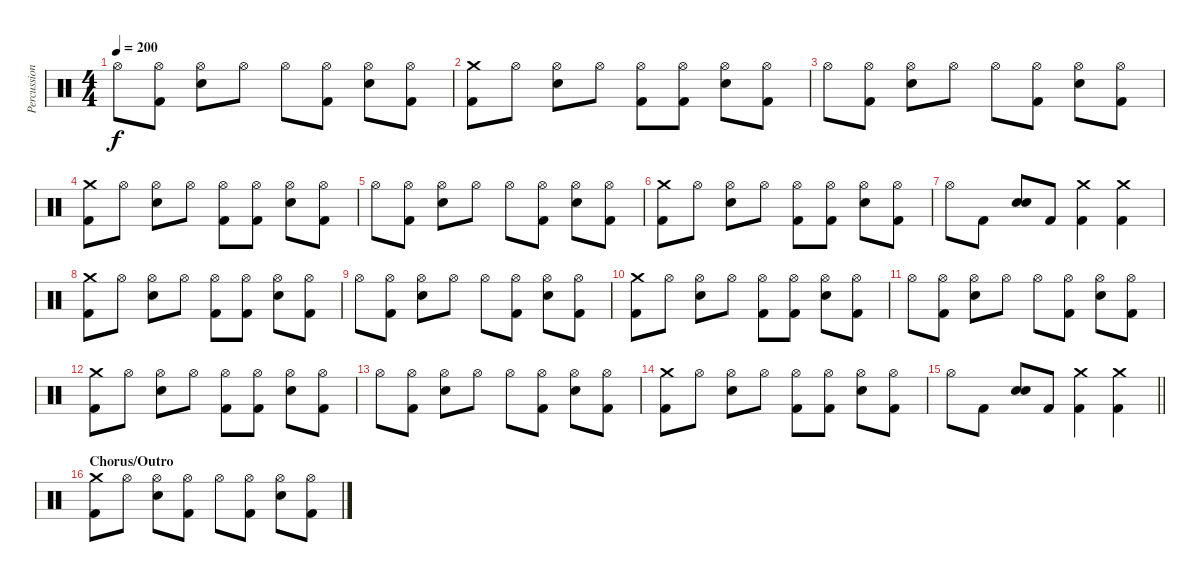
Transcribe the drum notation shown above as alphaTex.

\track ("Percussion" "Percussion") {instrument percussion}
\staff {score}
\articulation defaults
\ts (4 4)
\tempo 200
\clef neutral
\ks c "Hi-Hat (open)".8{dy f}
("Hi-Hat (open)" "Kick (hit) 2").8 ("Hi-Hat (open)" "Electric Snare (hit)").8 "Hi-Hat (open)".8 "Hi-Hat (open)".8 ("Hi-Hat (open)" "Kick (hit) 2").8 ("Hi-Hat (open)" "Electric Snare (hit)").8 ("Hi-Hat (open)" "Kick (hit) 2").8 |
("Crash medium (hit)" "Kick (hit) 2").8 "Hi-Hat (open)".8 ("Hi-Hat (open)" "Electric Snare (hit)").8 "Hi-Hat (open)".8 ("Hi-Hat (open)" "Kick (hit) 2").8 ("Hi-Hat (open)" "Kick (hit) 2").8 ("Hi-Hat (open)" "Electric Snare (hit)").8 ("Hi-Hat (open)" "Kick (hit) 2").8 |
"Hi-Hat (open)".8 ("Hi-Hat (open)" "Kick (hit) 2").8 ("Hi-Hat (open)" "Electric Snare (hit)").8 "Hi-Hat (open)".8 "Hi-Hat (open)".8 ("Hi-Hat (open)" "Kick (hit) 2").8 ("Hi-Hat (open)" "Electric Snare (hit)").8 ("Hi-Hat (open)" "Kick (hit) 2").8 |
("Crash medium (hit)" "Kick (hit) 2").8 "Hi-Hat (open)".8 ("Hi-Hat (open)" "Electric Snare (hit)").8 "Hi-Hat (open)".8 ("Hi-Hat (open)" "Kick (hit) 2").8 ("Hi-Hat (open)" "Kick (hit) 2").8 ("Hi-Hat (open)" "Electric Snare (hit)").8 ("Hi-Hat (open)" "Kick (hit) 2").8 |
"Hi-Hat (open)".8 ("Hi-Hat (open)" "Kick (hit) 2").8 ("Hi-Hat (open)" "Electric Snare (hit)").8 "Hi-Hat (open)".8 "Hi-Hat (open)".8 ("Hi-Hat (open)" "Kick (hit) 2").8 ("Hi-Hat (open)" "Electric Snare (hit)").8 ("Hi-Hat (open)" "Kick (hit) 2").8 |
("Crash medium (hit)" "Kick (hit) 2").8 "Hi-Hat (open)".8 ("Hi-Hat (open)" "Electric Snare (hit)").8 "Hi-Hat (open)".8 ("Hi-Hat (open)" "Kick (hit) 2").8 ("Hi-Hat (open)" "Kick (hit) 2").8 ("Hi-Hat (open)" "Electric Snare (hit)").8 ("Hi-Hat (open)" "Kick (hit) 2").8 |
"Hi-Hat (open)".8 "Kick (hit) 2".8 ("Electric Snare (hit)" "Electric Snare (hit)").8 "Kick (hit) 2".8 ("Crash medium (hit)" "Kick (hit) 2").4 ("Crash medium (hit)" "Kick (hit) 2").4 |
("Crash medium (hit)" "Kick (hit) 2").8 "Hi-Hat (open)".8 ("Hi-Hat (open)" "Electric Snare (hit)").8 "Hi-Hat (open)".8 ("Hi-Hat (open)" "Kick (hit) 2").8 ("Hi-Hat (open)" "Kick (hit) 2").8 ("Hi-Hat (open)" "Electric Snare (hit)").8 ("Hi-Hat (open)" "Kick (hit) 2").8 |
"Hi-Hat (open)".8 ("Hi-Hat (open)" "Kick (hit) 2").8 ("Hi-Hat (open)" "Electric Snare (hit)").8 "Hi-Hat (open)".8 "Hi-Hat (open)".8 ("Hi-Hat (open)" "Kick (hit) 2").8 ("Hi-Hat (open)" "Electric Snare (hit)").8 ("Hi-Hat (open)" "Kick (hit) 2").8 |
("Crash medium (hit)" "Kick (hit) 2").8 "Hi-Hat (open)".8 ("Hi-Hat (open)" "Electric Snare (hit)").8 "Hi-Hat (open)".8 ("Hi-Hat (open)" "Kick (hit) 2").8 ("Hi-Hat (open)" "Kick (hit) 2").8 ("Hi-Hat (open)" "Electric Snare (hit)").8 ("Hi-Hat (open)" "Kick (hit) 2").8 |
"Hi-Hat (open)".8 ("Hi-Hat (open)" "Kick (hit) 2").8 ("Hi-Hat (open)" "Electric Snare (hit)").8 "Hi-Hat (open)".8 "Hi-Hat (open)".8 ("Hi-Hat (open)" "Kick (hit) 2").8 ("Hi-Hat (open)" "Electric Snare (hit)").8 ("Hi-Hat (open)" "Kick (hit) 2").8 |
("Crash medium (hit)" "Kick (hit) 2").8 "Hi-Hat (open)".8 ("Hi-Hat (open)" "Electric Snare (hit)").8 "Hi-Hat (open)".8 ("Hi-Hat (open)" "Kick (hit) 2").8 ("Hi-Hat (open)" "Kick (hit) 2").8 ("Hi-Hat (open)" "Electric Snare (hit)").8 ("Hi-Hat (open)" "Kick (hit) 2").8 |
"Hi-Hat (open)".8 ("Hi-Hat (open)" "Kick (hit) 2").8 ("Hi-Hat (open)" "Electric Snare (hit)").8 "Hi-Hat (open)".8 "Hi-Hat (open)".8 ("Hi-Hat (open)" "Kick (hit) 2").8 ("Hi-Hat (open)" "Electric Snare (hit)").8 ("Hi-Hat (open)" "Kick (hit) 2").8 |
("Crash medium (hit)" "Kick (hit) 2").8 "Hi-Hat (open)".8 ("Hi-Hat (open)" "Electric Snare (hit)").8 "Hi-Hat (open)".8 ("Hi-Hat (open)" "Kick (hit) 2").8 ("Hi-Hat (open)" "Kick (hit) 2").8 ("Hi-Hat (open)" "Electric Snare (hit)").8 ("Hi-Hat (open)" "Kick (hit) 2").8 |
\barLineRight lightlight "Hi-Hat (open)".8 "Kick (hit) 2".8
("Electric Snare (hit)" "Electric Snare (hit)").8 "Kick (hit) 2".8 ("Crash medium (hit)" "Kick (hit) 2").4 ("Crash medium (hit)" "Kick (hit) 2").4 |
\section ("" "Chorus/Outro")
("Crash medium (hit)" "Kick (hit) 2").8 "Hi-Hat (open)".8 ("Hi-Hat (open)" "Electric Snare (hit)").8 ("Hi-Hat (open)" "Kick (hit) 2").8 "Hi-Hat (open)".8 ("Hi-Hat (open)" "Kick (hit) 2").8 ("Hi-Hat (open)" "Electric Snare (hit)").8 ("Hi-Hat (open)" "Kick (hit) 2").8
